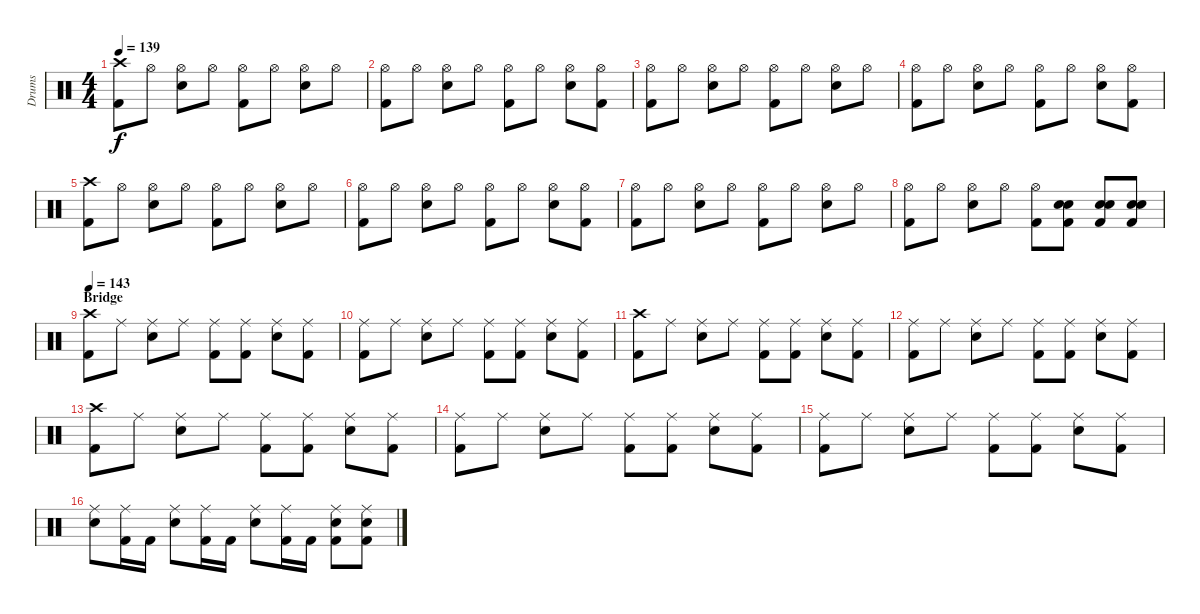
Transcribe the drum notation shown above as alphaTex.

\track ("Drums" "Drums") {instrument percussion}
\staff {score}
\articulation defaults
\ts (4 4)
\tempo 139
\clef neutral
\ks c
("Kick (hit) 2" "Crash high (hit)").8{dy f} "Hi-Hat (open)".8 ("Electric Snare (hit)" "Hi-Hat (open)").8 "Hi-Hat (open)".8 ("Kick (hit) 2" "Hi-Hat (open)").8 "Hi-Hat (open)".8 ("Electric Snare (hit)" "Hi-Hat (open)").8 "Hi-Hat (open)".8 |
("Kick (hit) 2" "Hi-Hat (open)").8 "Hi-Hat (open)".8 ("Electric Snare (hit)" "Hi-Hat (open)").8 "Hi-Hat (open)".8 ("Kick (hit) 2" "Hi-Hat (open)").8 "Hi-Hat (open)".8 ("Electric Snare (hit)" "Hi-Hat (open)").8 ("Kick (hit) 2" "Hi-Hat (open)").8 |
("Kick (hit) 2" "Hi-Hat (open)").8 "Hi-Hat (open)".8 ("Electric Snare (hit)" "Hi-Hat (open)").8 "Hi-Hat (open)".8 ("Kick (hit) 2" "Hi-Hat (open)").8 "Hi-Hat (open)".8 ("Electric Snare (hit)" "Hi-Hat (open)").8 "Hi-Hat (open)".8 |
("Kick (hit) 2" "Hi-Hat (open)").8 "Hi-Hat (open)".8 ("Electric Snare (hit)" "Hi-Hat (open)").8 "Hi-Hat (open)".8 ("Kick (hit) 2" "Hi-Hat (open)").8 "Hi-Hat (open)".8 ("Electric Snare (hit)" "Hi-Hat (open)").8 ("Kick (hit) 2" "Hi-Hat (open)").8 |
("Kick (hit) 2" "Crash high (hit)").8 "Hi-Hat (open)".8 ("Electric Snare (hit)" "Hi-Hat (open)").8 "Hi-Hat (open)".8 ("Kick (hit) 2" "Hi-Hat (open)").8 "Hi-Hat (open)".8 ("Electric Snare (hit)" "Hi-Hat (open)").8 "Hi-Hat (open)".8 |
("Kick (hit) 2" "Hi-Hat (open)").8 "Hi-Hat (open)".8 ("Electric Snare (hit)" "Hi-Hat (open)").8 "Hi-Hat (open)".8 ("Kick (hit) 2" "Hi-Hat (open)").8 "Hi-Hat (open)".8 ("Electric Snare (hit)" "Hi-Hat (open)").8 ("Kick (hit) 2" "Hi-Hat (open)").8 |
("Kick (hit) 2" "Hi-Hat (open)").8 "Hi-Hat (open)".8 ("Electric Snare (hit)" "Hi-Hat (open)").8 "Hi-Hat (open)".8 ("Kick (hit) 2" "Hi-Hat (open)").8 "Hi-Hat (open)".8 ("Electric Snare (hit)" "Hi-Hat (open)").8 "Hi-Hat (open)".8 |
("Kick (hit) 2" "Hi-Hat (open)").8 "Hi-Hat (open)".8 ("Electric Snare (hit)" "Hi-Hat (open)").8 "Hi-Hat (open)".8 ("Kick (hit) 2" "Hi-Hat (open)").8 ("Kick (hit) 2" "Electric Snare (hit)" "Electric Snare (hit)").8 ("Kick (hit) 2" "Electric Snare (hit)" "Electric Snare (hit)").8 ("Kick (hit) 2" "Electric Snare (hit)" "Electric Snare (hit)").8 |
\section ("" "Bridge")
\tempo 143
("Kick (hit) 2" "Crash high (hit)").8 "Ride (middle)".8 ("Electric Snare (hit)" "Ride (middle)").8 "Ride (middle)".8 ("Kick (hit) 2" "Ride (middle)").8 ("Kick (hit) 2" "Ride (middle)").8 ("Electric Snare (hit)" "Ride (middle)").8 ("Kick (hit) 2" "Ride (middle)").8 |
("Kick (hit) 2" "Ride (middle)").8 "Ride (middle)".8 ("Electric Snare (hit)" "Ride (middle)").8 "Ride (middle)".8 ("Kick (hit) 2" "Ride (middle)").8 ("Kick (hit) 2" "Ride (middle)").8 ("Electric Snare (hit)" "Ride (middle)").8 ("Kick (hit) 2" "Ride (middle)").8 |
("Kick (hit) 2" "Crash high (hit)").8 "Ride (middle)".8 ("Electric Snare (hit)" "Ride (middle)").8 "Ride (middle)".8 ("Kick (hit) 2" "Ride (middle)").8 ("Kick (hit) 2" "Ride (middle)").8 ("Electric Snare (hit)" "Ride (middle)").8 ("Kick (hit) 2" "Ride (middle)").8 |
("Kick (hit) 2" "Ride (middle)").8 "Ride (middle)".8 ("Electric Snare (hit)" "Ride (middle)").8 "Ride (middle)".8 ("Kick (hit) 2" "Ride (middle)").8 ("Kick (hit) 2" "Ride (middle)").8 ("Electric Snare (hit)" "Ride (middle)").8 ("Kick (hit) 2" "Ride (middle)").8 |
("Kick (hit) 2" "Crash high (hit)").8 "Ride (middle)".8 ("Electric Snare (hit)" "Ride (middle)").8 "Ride (middle)".8 ("Kick (hit) 2" "Ride (middle)").8 ("Kick (hit) 2" "Ride (middle)").8 ("Electric Snare (hit)" "Ride (middle)").8 ("Kick (hit) 2" "Ride (middle)").8 |
("Kick (hit) 2" "Ride (middle)").8 "Ride (middle)".8 ("Electric Snare (hit)" "Ride (middle)").8 "Ride (middle)".8 ("Kick (hit) 2" "Ride (middle)").8 ("Kick (hit) 2" "Ride (middle)").8 ("Electric Snare (hit)" "Ride (middle)").8 ("Kick (hit) 2" "Ride (middle)").8 |
("Kick (hit) 2" "Ride (middle)").8 "Ride (middle)".8 ("Electric Snare (hit)" "Ride (middle)").8 "Ride (middle)".8 ("Kick (hit) 2" "Ride (middle)").8 ("Kick (hit) 2" "Ride (middle)").8 ("Electric Snare (hit)" "Ride (middle)").8 ("Kick (hit) 2" "Ride (middle)").8 |
("Electric Snare (hit)" "Ride (middle)").8 ("Kick (hit) 2" "Ride (middle)").16 "Kick (hit) 2".16 ("Electric Snare (hit)" "Ride (middle)").8 ("Kick (hit) 2" "Ride (middle)").16 "Kick (hit) 2".16 ("Electric Snare (hit)" "Ride (middle)").8 ("Kick (hit) 2" "Ride (middle)").16 "Kick (hit) 2".16 ("Kick (hit) 2" "Electric Snare (hit)" "Ride (middle)").8 ("Kick (hit) 2" "Electric Snare (hit)" "Ride (middle)").8
